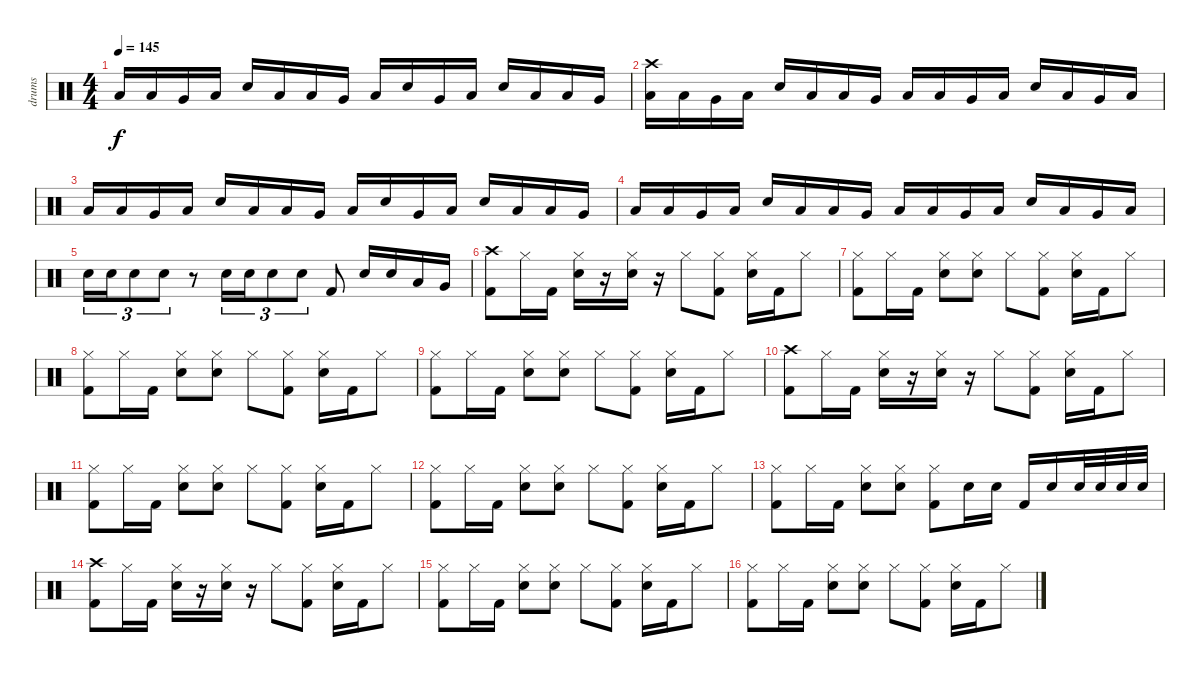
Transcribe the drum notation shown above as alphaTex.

\track ("drums" "drums") {instrument percussion}
\staff {score}
\articulation defaults
\ts (4 4)
\tempo 145
\clef neutral
\ks c "Low Floor Tom (hit)".16{dy f} "Low Tom (hit)".16 "Very Low Tom (hit)".16 "Low Floor Tom (hit)".16 "Electric Snare (hit)".16 "Low Floor Tom (hit)".16 "Low Tom (hit)".16 "Very Low Tom (hit)".16 "Low Tom (hit)".16 "Electric Snare (hit)".16 "Very Low Tom (hit)".16 "Low Floor Tom (hit)".16 "Electric Snare (hit)".16 "Low Floor Tom (hit)".16 "Low Tom (hit)".16 "Very Low Tom (hit)".16
|
("Crash high (hit)" "Low Floor Tom (hit)").16 "Low Tom (hit)".16 "Very Low Tom (hit)".16 "Low Floor Tom (hit)".16 "Electric Snare (hit)".16 "Low Floor Tom (hit)".16 "Low Tom (hit)".16 "Very Low Tom (hit)".16 "Low Tom (hit)".16 "Low Floor Tom (hit)".16 "Very Low Tom (hit)".16 "Low Floor Tom (hit)".16 "Electric Snare (hit)".16 "Low Floor Tom (hit)".16 "Very Low Tom (hit)".16 "Low Tom (hit)".16 |
"Low Floor Tom (hit)".16 "Low Tom (hit)".16 "Very Low Tom (hit)".16 "Low Floor Tom (hit)".16 "Electric Snare (hit)".16 "Low Floor Tom (hit)".16 "Low Tom (hit)".16 "Very Low Tom (hit)".16 "Low Tom (hit)".16 "Electric Snare (hit)".16 "Very Low Tom (hit)".16 "Low Floor Tom (hit)".16 "Electric Snare (hit)".16 "Low Floor Tom (hit)".16 "Low Tom (hit)".16 "Very Low Tom (hit)".16 |
"Low Floor Tom (hit)".16 "Low Tom (hit)".16 "Very Low Tom (hit)".16 "Low Floor Tom (hit)".16 "Electric Snare (hit)".16 "Low Floor Tom (hit)".16 "Low Tom (hit)".16 "Very Low Tom (hit)".16 "Low Tom (hit)".16 "Low Floor Tom (hit)".16 "Very Low Tom (hit)".16 "Low Floor Tom (hit)".16 "Electric Snare (hit)".16 "Low Floor Tom (hit)".16 "Very Low Tom (hit)".16 "Low Tom (hit)".16 |
"Electric Snare (hit)".16{tu (3 2)} "Electric Snare (hit)".16{tu (3 2)} "Electric Snare (hit)".8{tu (3 2)} "Electric Snare (hit)".8{tu (3 2)} r.8 "Electric Snare (hit)".16{tu (3 2)} "Electric Snare (hit)".16{tu (3 2)} "Electric Snare (hit)".8{tu (3 2)} "Electric Snare (hit)".8{tu (3 2)} "Kick (hit) 2".8 "Electric Snare (hit)".16 "Electric Snare (hit)".16 "Low Tom (hit)".16 "Very Low Tom (hit)".16 |
("Crash high (hit)" "Kick (hit) 2").8 "Hi-Hat (closed)".16 "Kick (hit) 2".16 ("Hi-Hat (closed)" "Electric Snare (hit)").16 r.16 ("Hi-Hat (closed)" "Electric Snare (hit)").16 r.16 "Hi-Hat (closed)".8 ("Hi-Hat (closed)" "Kick (hit) 2").8 ("Hi-Hat (closed)" "Electric Snare (hit)").16 "Kick (hit) 2".16 "Hi-Hat (closed)".8 |
("Hi-Hat (closed)" "Kick (hit) 2").8 "Hi-Hat (closed)".16 "Kick (hit) 2".16 ("Hi-Hat (closed)" "Electric Snare (hit)").8 ("Hi-Hat (closed)" "Electric Snare (hit)").8 "Hi-Hat (closed)".8 ("Hi-Hat (closed)" "Kick (hit) 2").8 ("Hi-Hat (closed)" "Electric Snare (hit)").16 "Kick (hit) 2".16 "Hi-Hat (closed)".8 |
("Hi-Hat (closed)" "Kick (hit) 2").8 "Hi-Hat (closed)".16 "Kick (hit) 2".16 ("Hi-Hat (closed)" "Electric Snare (hit)").8 ("Hi-Hat (closed)" "Electric Snare (hit)").8 "Hi-Hat (closed)".8 ("Hi-Hat (closed)" "Kick (hit) 2").8 ("Hi-Hat (closed)" "Electric Snare (hit)").16 "Kick (hit) 2".16 "Hi-Hat (closed)".8 |
("Hi-Hat (closed)" "Kick (hit) 2").8 "Hi-Hat (closed)".16 "Kick (hit) 2".16 ("Hi-Hat (closed)" "Electric Snare (hit)").8 ("Hi-Hat (closed)" "Electric Snare (hit)").8 "Hi-Hat (closed)".8 ("Hi-Hat (closed)" "Kick (hit) 2").8 ("Hi-Hat (closed)" "Electric Snare (hit)").16 "Kick (hit) 2".16 "Hi-Hat (closed)".8 |
("Crash high (hit)" "Kick (hit) 2").8 "Hi-Hat (closed)".16 "Kick (hit) 2".16 ("Hi-Hat (closed)" "Electric Snare (hit)").16 r.16 ("Hi-Hat (closed)" "Electric Snare (hit)").16 r.16 "Hi-Hat (closed)".8 ("Hi-Hat (closed)" "Kick (hit) 2").8 ("Hi-Hat (closed)" "Electric Snare (hit)").16 "Kick (hit) 2".16 "Hi-Hat (closed)".8 |
("Hi-Hat (closed)" "Kick (hit) 2").8 "Hi-Hat (closed)".16 "Kick (hit) 2".16 ("Hi-Hat (closed)" "Electric Snare (hit)").8 ("Hi-Hat (closed)" "Electric Snare (hit)").8 "Hi-Hat (closed)".8 ("Hi-Hat (closed)" "Kick (hit) 2").8 ("Hi-Hat (closed)" "Electric Snare (hit)").16 "Kick (hit) 2".16 "Hi-Hat (closed)".8 |
("Hi-Hat (closed)" "Kick (hit) 2").8 "Hi-Hat (closed)".16 "Kick (hit) 2".16 ("Hi-Hat (closed)" "Electric Snare (hit)").8 ("Hi-Hat (closed)" "Electric Snare (hit)").8 "Hi-Hat (closed)".8 ("Hi-Hat (closed)" "Kick (hit) 2").8 ("Hi-Hat (closed)" "Electric Snare (hit)").16 "Kick (hit) 2".16 "Hi-Hat (closed)".8 |
("Hi-Hat (closed)" "Kick (hit) 2").8 "Hi-Hat (closed)".16 "Kick (hit) 2".16 ("Hi-Hat (closed)" "Electric Snare (hit)").8 ("Hi-Hat (closed)" "Electric Snare (hit)").8 ("Hi-Hat (closed)" "Kick (hit) 2").8 "Electric Snare (hit)".16 "Electric Snare (hit)".16 "Kick (hit) 2".16 "Electric Snare (hit)".16 "Electric Snare (hit)".32 "Electric Snare (hit)".32 "Electric Snare (hit)".32 "Electric Snare (hit)".32 |
("Crash high (hit)" "Kick (hit) 2").8 "Hi-Hat (closed)".16 "Kick (hit) 2".16 ("Hi-Hat (closed)" "Electric Snare (hit)").16 r.16 ("Hi-Hat (closed)" "Electric Snare (hit)").16 r.16 "Hi-Hat (closed)".8 ("Hi-Hat (closed)" "Kick (hit) 2").8 ("Hi-Hat (closed)" "Electric Snare (hit)").16 "Kick (hit) 2".16 "Hi-Hat (closed)".8 |
("Hi-Hat (closed)" "Kick (hit) 2").8 "Hi-Hat (closed)".16 "Kick (hit) 2".16 ("Hi-Hat (closed)" "Electric Snare (hit)").8 ("Hi-Hat (closed)" "Electric Snare (hit)").8 "Hi-Hat (closed)".8 ("Hi-Hat (closed)" "Kick (hit) 2").8 ("Hi-Hat (closed)" "Electric Snare (hit)").16 "Kick (hit) 2".16 "Hi-Hat (closed)".8 |
("Hi-Hat (closed)" "Kick (hit) 2").8 "Hi-Hat (closed)".16 "Kick (hit) 2".16 ("Hi-Hat (closed)" "Electric Snare (hit)").8 ("Hi-Hat (closed)" "Electric Snare (hit)").8 "Hi-Hat (closed)".8 ("Hi-Hat (closed)" "Kick (hit) 2").8 ("Hi-Hat (closed)" "Electric Snare (hit)").16 "Kick (hit) 2".16 "Hi-Hat (closed)".8
